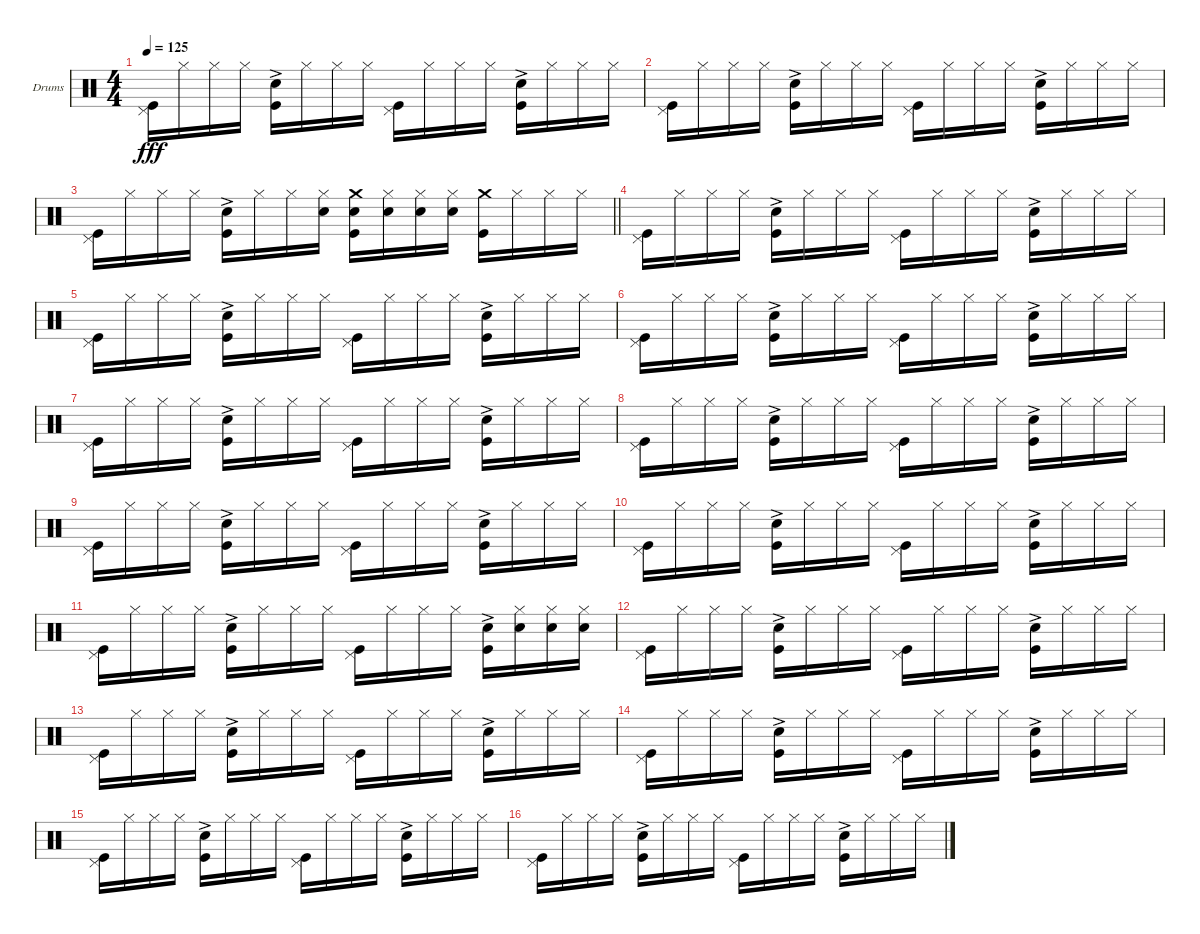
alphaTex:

\bracketExtendMode groupsimilarinstruments
\firstSystemTrackNameOrientation horizontal
\otherSystemsTrackNameOrientation horizontal
\track ("Ударники Григорий Гурьянов" "Drums") {instrument percussion}
\staff {score}
\articulation defaults
\ts (4 4)
\tempo 125
\clef neutral
\ks c
("Pedal Hi-Hat (hit)" "Kick (hit)").16{dy fff} "Hi-Hat (closed)".16 "Hi-Hat (closed)".16 "Hi-Hat (closed)".16 ("Snare (hit) 2"{ac} "Kick (hit)").16 "Hi-Hat (closed)".16 "Hi-Hat (closed)".16 "Hi-Hat (closed)".16 ("Pedal Hi-Hat (hit)" "Kick (hit)").16 "Hi-Hat (closed)".16 "Hi-Hat (closed)".16 "Hi-Hat (closed)".16 ("Snare (hit) 2"{ac} "Kick (hit)").16 "Hi-Hat (closed)".16 "Hi-Hat (closed)".16 "Hi-Hat (closed)".16 |
("Pedal Hi-Hat (hit)" "Kick (hit)").16 "Hi-Hat (closed)".16 "Hi-Hat (closed)".16 "Hi-Hat (closed)".16 ("Snare (hit) 2"{ac} "Kick (hit)").16 "Hi-Hat (closed)".16 "Hi-Hat (closed)".16 "Hi-Hat (closed)".16 ("Pedal Hi-Hat (hit)" "Kick (hit)").16 "Hi-Hat (closed)".16 "Hi-Hat (closed)".16 "Hi-Hat (closed)".16 ("Snare (hit) 2"{ac} "Kick (hit)").16 "Hi-Hat (closed)".16 "Hi-Hat (closed)".16 "Hi-Hat (closed)".16 |
\barLineRight lightlight
("Pedal Hi-Hat (hit)" "Kick (hit)").16 "Hi-Hat (closed)".16 "Hi-Hat (closed)".16 "Hi-Hat (closed)".16 ("Snare (hit) 2"{ac} "Kick (hit)").16 "Hi-Hat (closed)".16 "Hi-Hat (closed)".16 ("Hi-Hat (closed)" "Snare (hit) 2").16 ("Crash medium (hit)" "Kick (hit)" "Snare (hit) 2").16 ("Hi-Hat (closed)" "Snare (hit) 2").16 ("Hi-Hat (closed)" "Snare (hit) 2").16 ("Hi-Hat (closed)" "Snare (hit) 2").16 ("Crash medium (hit)" "Kick (hit)").16 "Hi-Hat (closed)".16 "Hi-Hat (closed)".16 "Hi-Hat (closed)".16 |
("Pedal Hi-Hat (hit)" "Kick (hit)").16 "Hi-Hat (closed)".16 "Hi-Hat (closed)".16 "Hi-Hat (closed)".16 ("Snare (hit) 2"{ac} "Kick (hit)").16 "Hi-Hat (closed)".16 "Hi-Hat (closed)".16 "Hi-Hat (closed)".16 ("Pedal Hi-Hat (hit)" "Kick (hit)").16 "Hi-Hat (closed)".16 "Hi-Hat (closed)".16 "Hi-Hat (closed)".16 ("Snare (hit) 2"{ac} "Kick (hit)").16 "Hi-Hat (closed)".16 "Hi-Hat (closed)".16 "Hi-Hat (closed)".16 |
("Pedal Hi-Hat (hit)" "Kick (hit)").16 "Hi-Hat (closed)".16 "Hi-Hat (closed)".16 "Hi-Hat (closed)".16 ("Snare (hit) 2"{ac} "Kick (hit)").16 "Hi-Hat (closed)".16 "Hi-Hat (closed)".16 "Hi-Hat (closed)".16 ("Pedal Hi-Hat (hit)" "Kick (hit)").16 "Hi-Hat (closed)".16 "Hi-Hat (closed)".16 "Hi-Hat (closed)".16 ("Snare (hit) 2"{ac} "Kick (hit)").16 "Hi-Hat (closed)".16 "Hi-Hat (closed)".16 "Hi-Hat (closed)".16 |
("Pedal Hi-Hat (hit)" "Kick (hit)").16 "Hi-Hat (closed)".16 "Hi-Hat (closed)".16 "Hi-Hat (closed)".16 ("Snare (hit) 2"{ac} "Kick (hit)").16 "Hi-Hat (closed)".16 "Hi-Hat (closed)".16 "Hi-Hat (closed)".16 ("Pedal Hi-Hat (hit)" "Kick (hit)").16 "Hi-Hat (closed)".16 "Hi-Hat (closed)".16 "Hi-Hat (closed)".16 ("Snare (hit) 2"{ac} "Kick (hit)").16 "Hi-Hat (closed)".16 "Hi-Hat (closed)".16 "Hi-Hat (closed)".16 |
("Pedal Hi-Hat (hit)" "Kick (hit)").16 "Hi-Hat (closed)".16 "Hi-Hat (closed)".16 "Hi-Hat (closed)".16 ("Snare (hit) 2"{ac} "Kick (hit)").16 "Hi-Hat (closed)".16 "Hi-Hat (closed)".16 "Hi-Hat (closed)".16 ("Pedal Hi-Hat (hit)" "Kick (hit)").16 "Hi-Hat (closed)".16 "Hi-Hat (closed)".16 "Hi-Hat (closed)".16 ("Snare (hit) 2"{ac} "Kick (hit)").16 "Hi-Hat (closed)".16 "Hi-Hat (closed)".16 "Hi-Hat (closed)".16 |
("Pedal Hi-Hat (hit)" "Kick (hit)").16 "Hi-Hat (closed)".16 "Hi-Hat (closed)".16 "Hi-Hat (closed)".16 ("Snare (hit) 2"{ac} "Kick (hit)").16 "Hi-Hat (closed)".16 "Hi-Hat (closed)".16 "Hi-Hat (closed)".16 ("Pedal Hi-Hat (hit)" "Kick (hit)").16 "Hi-Hat (closed)".16 "Hi-Hat (closed)".16 "Hi-Hat (closed)".16 ("Snare (hit) 2"{ac} "Kick (hit)").16 "Hi-Hat (closed)".16 "Hi-Hat (closed)".16 "Hi-Hat (closed)".16 |
("Pedal Hi-Hat (hit)" "Kick (hit)").16 "Hi-Hat (closed)".16 "Hi-Hat (closed)".16 "Hi-Hat (closed)".16 ("Snare (hit) 2"{ac} "Kick (hit)").16 "Hi-Hat (closed)".16 "Hi-Hat (closed)".16 "Hi-Hat (closed)".16 ("Pedal Hi-Hat (hit)" "Kick (hit)").16 "Hi-Hat (closed)".16 "Hi-Hat (closed)".16 "Hi-Hat (closed)".16 ("Snare (hit) 2"{ac} "Kick (hit)").16 "Hi-Hat (closed)".16 "Hi-Hat (closed)".16 "Hi-Hat (closed)".16 |
("Pedal Hi-Hat (hit)" "Kick (hit)").16 "Hi-Hat (closed)".16 "Hi-Hat (closed)".16 "Hi-Hat (closed)".16 ("Snare (hit) 2"{ac} "Kick (hit)").16 "Hi-Hat (closed)".16 "Hi-Hat (closed)".16 "Hi-Hat (closed)".16 ("Pedal Hi-Hat (hit)" "Kick (hit)").16 "Hi-Hat (closed)".16 "Hi-Hat (closed)".16 "Hi-Hat (closed)".16 ("Snare (hit) 2"{ac} "Kick (hit)").16 "Hi-Hat (closed)".16 "Hi-Hat (closed)".16 "Hi-Hat (closed)".16 |
("Pedal Hi-Hat (hit)" "Kick (hit)").16 "Hi-Hat (closed)".16 "Hi-Hat (closed)".16 "Hi-Hat (closed)".16 ("Snare (hit) 2"{ac} "Kick (hit)").16 "Hi-Hat (closed)".16 "Hi-Hat (closed)".16 "Hi-Hat (closed)".16 ("Pedal Hi-Hat (hit)" "Kick (hit)").16 "Hi-Hat (closed)".16 "Hi-Hat (closed)".16 "Hi-Hat (closed)".16 ("Snare (hit) 2"{ac} "Kick (hit)").16 ("Hi-Hat (closed)" "Snare (hit) 2").16 ("Hi-Hat (closed)" "Snare (hit) 2").16 ("Hi-Hat (closed)" "Snare (hit) 2").16 |
("Pedal Hi-Hat (hit)" "Kick (hit)").16 "Hi-Hat (closed)".16 "Hi-Hat (closed)".16 "Hi-Hat (closed)".16 ("Snare (hit) 2"{ac} "Kick (hit)").16 "Hi-Hat (closed)".16 "Hi-Hat (closed)".16 "Hi-Hat (closed)".16 ("Pedal Hi-Hat (hit)" "Kick (hit)").16 "Hi-Hat (closed)".16 "Hi-Hat (closed)".16 "Hi-Hat (closed)".16 ("Snare (hit) 2"{ac} "Kick (hit)").16 "Hi-Hat (closed)".16 "Hi-Hat (closed)".16 "Hi-Hat (closed)".16 |
("Pedal Hi-Hat (hit)" "Kick (hit)").16 "Hi-Hat (closed)".16 "Hi-Hat (closed)".16 "Hi-Hat (closed)".16 ("Snare (hit) 2"{ac} "Kick (hit)").16 "Hi-Hat (closed)".16 "Hi-Hat (closed)".16 "Hi-Hat (closed)".16 ("Pedal Hi-Hat (hit)" "Kick (hit)").16 "Hi-Hat (closed)".16 "Hi-Hat (closed)".16 "Hi-Hat (closed)".16 ("Snare (hit) 2"{ac} "Kick (hit)").16 "Hi-Hat (closed)".16 "Hi-Hat (closed)".16 "Hi-Hat (closed)".16 |
("Pedal Hi-Hat (hit)" "Kick (hit)").16 "Hi-Hat (closed)".16 "Hi-Hat (closed)".16 "Hi-Hat (closed)".16 ("Snare (hit) 2"{ac} "Kick (hit)").16 "Hi-Hat (closed)".16 "Hi-Hat (closed)".16 "Hi-Hat (closed)".16 ("Pedal Hi-Hat (hit)" "Kick (hit)").16 "Hi-Hat (closed)".16 "Hi-Hat (closed)".16 "Hi-Hat (closed)".16 ("Snare (hit) 2"{ac} "Kick (hit)").16 "Hi-Hat (closed)".16 "Hi-Hat (closed)".16 "Hi-Hat (closed)".16 |
("Pedal Hi-Hat (hit)" "Kick (hit)").16 "Hi-Hat (closed)".16 "Hi-Hat (closed)".16 "Hi-Hat (closed)".16 ("Snare (hit) 2"{ac} "Kick (hit)").16 "Hi-Hat (closed)".16 "Hi-Hat (closed)".16 "Hi-Hat (closed)".16 ("Pedal Hi-Hat (hit)" "Kick (hit)").16 "Hi-Hat (closed)".16 "Hi-Hat (closed)".16 "Hi-Hat (closed)".16 ("Snare (hit) 2"{ac} "Kick (hit)").16 "Hi-Hat (closed)".16 "Hi-Hat (closed)".16 "Hi-Hat (closed)".16 |
("Pedal Hi-Hat (hit)" "Kick (hit)").16 "Hi-Hat (closed)".16 "Hi-Hat (closed)".16 "Hi-Hat (closed)".16 ("Snare (hit) 2"{ac} "Kick (hit)").16 "Hi-Hat (closed)".16 "Hi-Hat (closed)".16 "Hi-Hat (closed)".16 ("Pedal Hi-Hat (hit)" "Kick (hit)").16 "Hi-Hat (closed)".16 "Hi-Hat (closed)".16 "Hi-Hat (closed)".16 ("Snare (hit) 2"{ac} "Kick (hit)").16 "Hi-Hat (closed)".16 "Hi-Hat (closed)".16 "Hi-Hat (closed)".16
